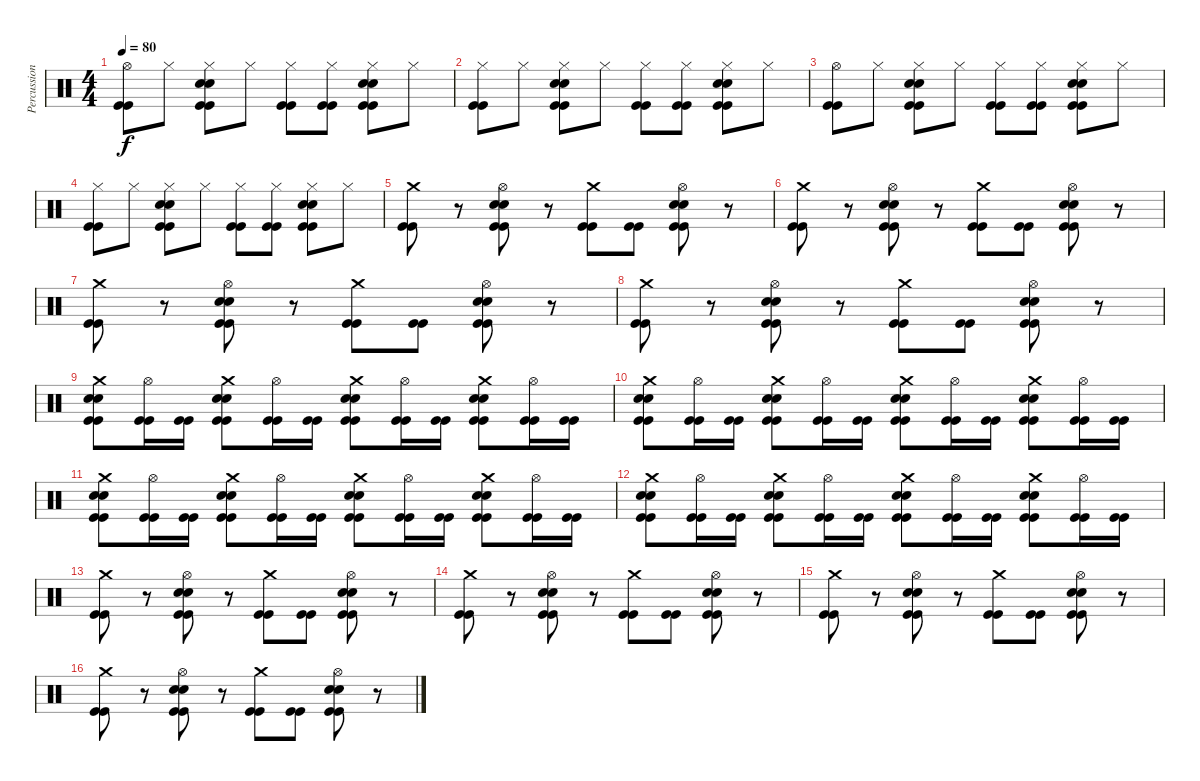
\track ("Percussion" "Percussion") {instrument percussion}
\staff {score}
\articulation defaults
\ts (4 4)
\tempo 80
\clef neutral
\ks c
("Hi-Hat (open)" "Kick (hit)" "Kick (hit)").8{dy f} "Hi-Hat (closed)".8 ("Hi-Hat (closed)" "Kick (hit)" "Kick (hit)" "Electric Snare (hit)" "Electric Snare (hit)").8 "Hi-Hat (closed)".8 ("Hi-Hat (closed)" "Kick (hit)" "Kick (hit)").8 ("Hi-Hat (closed)" "Kick (hit)" "Kick (hit)").8 ("Hi-Hat (closed)" "Kick (hit)" "Kick (hit)" "Electric Snare (hit)" "Electric Snare (hit)").8 "Hi-Hat (closed)".8 |
("Hi-Hat (closed)" "Kick (hit)" "Kick (hit)").8 "Hi-Hat (closed)".8 ("Hi-Hat (closed)" "Kick (hit)" "Kick (hit)" "Electric Snare (hit)" "Electric Snare (hit)").8 "Hi-Hat (closed)".8 ("Hi-Hat (closed)" "Kick (hit)" "Kick (hit)").8 ("Hi-Hat (closed)" "Kick (hit)" "Kick (hit)").8 ("Hi-Hat (closed)" "Kick (hit)" "Kick (hit)" "Electric Snare (hit)" "Electric Snare (hit)").8 "Hi-Hat (closed)".8 |
("Hi-Hat (open)" "Kick (hit)" "Kick (hit)").8 "Hi-Hat (closed)".8 ("Hi-Hat (closed)" "Kick (hit)" "Kick (hit)" "Electric Snare (hit)" "Electric Snare (hit)").8 "Hi-Hat (closed)".8 ("Hi-Hat (closed)" "Kick (hit)" "Kick (hit)").8 ("Hi-Hat (closed)" "Kick (hit)" "Kick (hit)").8 ("Hi-Hat (closed)" "Kick (hit)" "Kick (hit)" "Electric Snare (hit)" "Electric Snare (hit)").8 "Hi-Hat (closed)".8 |
("Hi-Hat (closed)" "Kick (hit)" "Kick (hit)").8 "Hi-Hat (closed)".8 ("Hi-Hat (closed)" "Kick (hit)" "Kick (hit)" "Electric Snare (hit)" "Electric Snare (hit)").8 "Hi-Hat (closed)".8 ("Hi-Hat (closed)" "Kick (hit)" "Kick (hit)").8 ("Hi-Hat (closed)" "Kick (hit)" "Kick (hit)").8 ("Hi-Hat (closed)" "Kick (hit)" "Kick (hit)" "Electric Snare (hit)" "Electric Snare (hit)").8 "Hi-Hat (closed)".8 |
("Crash medium (hit)" "Kick (hit)" "Kick (hit)").8 r.8 ("Hi-Hat (open)" "Kick (hit)" "Kick (hit)" "Electric Snare (hit)" "Electric Snare (hit)").8 r.8 ("Crash medium (hit)" "Kick (hit)" "Kick (hit)").8 ("Kick (hit)" "Kick (hit)").8 ("Hi-Hat (open)" "Kick (hit)" "Kick (hit)" "Electric Snare (hit)" "Electric Snare (hit)").8 r.8 |
("Crash medium (hit)" "Kick (hit)" "Kick (hit)").8 r.8 ("Hi-Hat (open)" "Kick (hit)" "Kick (hit)" "Electric Snare (hit)" "Electric Snare (hit)").8 r.8 ("Crash medium (hit)" "Kick (hit)" "Kick (hit)").8 ("Kick (hit)" "Kick (hit)").8 ("Hi-Hat (open)" "Kick (hit)" "Kick (hit)" "Electric Snare (hit)" "Electric Snare (hit)").8 r.8 |
("Crash medium (hit)" "Kick (hit)" "Kick (hit)").8 r.8 ("Hi-Hat (open)" "Kick (hit)" "Kick (hit)" "Electric Snare (hit)" "Electric Snare (hit)").8 r.8 ("Crash medium (hit)" "Kick (hit)" "Kick (hit)").8 ("Kick (hit)" "Kick (hit)").8 ("Hi-Hat (open)" "Kick (hit)" "Kick (hit)" "Electric Snare (hit)" "Electric Snare (hit)").8 r.8 |
("Crash medium (hit)" "Kick (hit)" "Kick (hit)").8 r.8 ("Hi-Hat (open)" "Kick (hit)" "Kick (hit)" "Electric Snare (hit)" "Electric Snare (hit)").8 r.8 ("Crash medium (hit)" "Kick (hit)" "Kick (hit)").8 ("Kick (hit)" "Kick (hit)").8 ("Hi-Hat (open)" "Kick (hit)" "Kick (hit)" "Electric Snare (hit)" "Electric Snare (hit)").8 r.8 |
("Crash medium (hit)" "Kick (hit)" "Kick (hit)" "Electric Snare (hit)" "Electric Snare (hit)").8 ("Hi-Hat (open)" "Kick (hit)" "Kick (hit)").16 ("Kick (hit)" "Kick (hit)").16 ("Crash medium (hit)" "Kick (hit)" "Kick (hit)" "Electric Snare (hit)" "Electric Snare (hit)").8 ("Hi-Hat (open)" "Kick (hit)" "Kick (hit)").16 ("Kick (hit)" "Kick (hit)").16 ("Crash medium (hit)" "Kick (hit)" "Kick (hit)" "Electric Snare (hit)" "Electric Snare (hit)").8 ("Hi-Hat (open)" "Kick (hit)" "Kick (hit)").16 ("Kick (hit)" "Kick (hit)").16 ("Crash medium (hit)" "Kick (hit)" "Kick (hit)" "Electric Snare (hit)" "Electric Snare (hit)").8 ("Hi-Hat (open)" "Kick (hit)" "Kick (hit)").16 ("Kick (hit)" "Kick (hit)").16 |
("Crash medium (hit)" "Kick (hit)" "Kick (hit)" "Electric Snare (hit)" "Electric Snare (hit)").8 ("Hi-Hat (open)" "Kick (hit)" "Kick (hit)").16 ("Kick (hit)" "Kick (hit)").16 ("Crash medium (hit)" "Kick (hit)" "Kick (hit)" "Electric Snare (hit)" "Electric Snare (hit)").8 ("Hi-Hat (open)" "Kick (hit)" "Kick (hit)").16 ("Kick (hit)" "Kick (hit)").16 ("Crash medium (hit)" "Kick (hit)" "Kick (hit)" "Electric Snare (hit)" "Electric Snare (hit)").8 ("Hi-Hat (open)" "Kick (hit)" "Kick (hit)").16 ("Kick (hit)" "Kick (hit)").16 ("Crash medium (hit)" "Kick (hit)" "Kick (hit)" "Electric Snare (hit)" "Electric Snare (hit)").8 ("Hi-Hat (open)" "Kick (hit)" "Kick (hit)").16 ("Kick (hit)" "Kick (hit)").16 |
("Crash medium (hit)" "Kick (hit)" "Kick (hit)" "Electric Snare (hit)" "Electric Snare (hit)").8 ("Hi-Hat (open)" "Kick (hit)" "Kick (hit)").16 ("Kick (hit)" "Kick (hit)").16 ("Crash medium (hit)" "Kick (hit)" "Kick (hit)" "Electric Snare (hit)" "Electric Snare (hit)").8 ("Hi-Hat (open)" "Kick (hit)" "Kick (hit)").16 ("Kick (hit)" "Kick (hit)").16 ("Crash medium (hit)" "Kick (hit)" "Kick (hit)" "Electric Snare (hit)" "Electric Snare (hit)").8 ("Hi-Hat (open)" "Kick (hit)" "Kick (hit)").16 ("Kick (hit)" "Kick (hit)").16 ("Crash medium (hit)" "Kick (hit)" "Kick (hit)" "Electric Snare (hit)" "Electric Snare (hit)").8 ("Hi-Hat (open)" "Kick (hit)" "Kick (hit)").16 ("Kick (hit)" "Kick (hit)").16 |
("Crash medium (hit)" "Kick (hit)" "Kick (hit)" "Electric Snare (hit)" "Electric Snare (hit)").8 ("Hi-Hat (open)" "Kick (hit)" "Kick (hit)").16 ("Kick (hit)" "Kick (hit)").16 ("Crash medium (hit)" "Kick (hit)" "Kick (hit)" "Electric Snare (hit)" "Electric Snare (hit)").8 ("Hi-Hat (open)" "Kick (hit)" "Kick (hit)").16 ("Kick (hit)" "Kick (hit)").16 ("Crash medium (hit)" "Kick (hit)" "Kick (hit)" "Electric Snare (hit)" "Electric Snare (hit)").8 ("Hi-Hat (open)" "Kick (hit)" "Kick (hit)").16 ("Kick (hit)" "Kick (hit)").16 ("Crash medium (hit)" "Kick (hit)" "Kick (hit)" "Electric Snare (hit)" "Electric Snare (hit)").8 ("Hi-Hat (open)" "Kick (hit)" "Kick (hit)").16 ("Kick (hit)" "Kick (hit)").16 |
("Crash medium (hit)" "Kick (hit)" "Kick (hit)").8 r.8 ("Hi-Hat (open)" "Kick (hit)" "Kick (hit)" "Electric Snare (hit)" "Electric Snare (hit)").8 r.8 ("Crash medium (hit)" "Kick (hit)" "Kick (hit)").8 ("Kick (hit)" "Kick (hit)").8 ("Hi-Hat (open)" "Kick (hit)" "Kick (hit)" "Electric Snare (hit)" "Electric Snare (hit)").8 r.8 |
("Crash medium (hit)" "Kick (hit)" "Kick (hit)").8 r.8 ("Hi-Hat (open)" "Kick (hit)" "Kick (hit)" "Electric Snare (hit)" "Electric Snare (hit)").8 r.8 ("Crash medium (hit)" "Kick (hit)" "Kick (hit)").8 ("Kick (hit)" "Kick (hit)").8 ("Hi-Hat (open)" "Kick (hit)" "Kick (hit)" "Electric Snare (hit)" "Electric Snare (hit)").8 r.8 |
("Crash medium (hit)" "Kick (hit)" "Kick (hit)").8 r.8 ("Hi-Hat (open)" "Kick (hit)" "Kick (hit)" "Electric Snare (hit)" "Electric Snare (hit)").8 r.8 ("Crash medium (hit)" "Kick (hit)" "Kick (hit)").8 ("Kick (hit)" "Kick (hit)").8 ("Hi-Hat (open)" "Kick (hit)" "Kick (hit)" "Electric Snare (hit)" "Electric Snare (hit)").8 r.8 |
("Crash medium (hit)" "Kick (hit)" "Kick (hit)").8 r.8 ("Hi-Hat (open)" "Kick (hit)" "Kick (hit)" "Electric Snare (hit)" "Electric Snare (hit)").8 r.8 ("Crash medium (hit)" "Kick (hit)" "Kick (hit)").8 ("Kick (hit)" "Kick (hit)").8 ("Hi-Hat (open)" "Kick (hit)" "Kick (hit)" "Electric Snare (hit)" "Electric Snare (hit)").8 r.8
